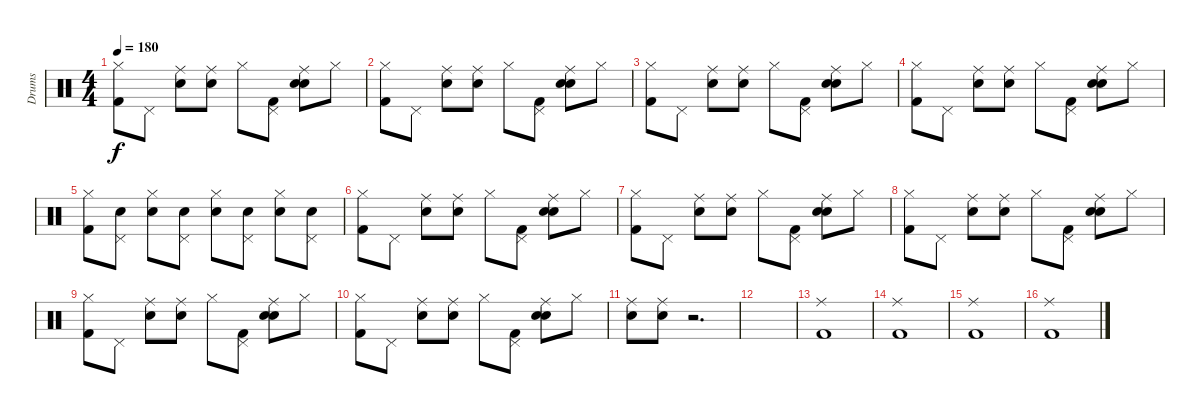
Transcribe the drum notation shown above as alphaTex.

\track ("Drums" "Drums") {instrument percussion}
\staff {score}
\articulation defaults
\ts (4 4)
\tempo 180
\clef neutral
\ks c
("Hi-Hat (closed)" "Kick (hit) 2").8{dy f} "Pedal Hi-Hat (hit)".8 ("Ride (middle)" "Snare (hit) 2").8 ("Ride (middle)" "Snare (hit) 2").8 "Hi-Hat (closed)".8 ("Pedal Hi-Hat (hit)" "Kick (hit) 2").8 ("Hand Clap (hit)" "Ride (middle)" "Snare (hit) 2").8 "Hi-Hat (closed)".8 |
("Hi-Hat (closed)" "Kick (hit) 2").8 "Pedal Hi-Hat (hit)".8 ("Ride (middle)" "Snare (hit) 2").8 ("Ride (middle)" "Snare (hit) 2").8 "Hi-Hat (closed)".8 ("Pedal Hi-Hat (hit)" "Kick (hit) 2").8 ("Hand Clap (hit)" "Ride (middle)" "Snare (hit) 2").8 "Hi-Hat (closed)".8 |
("Hi-Hat (closed)" "Kick (hit) 2").8 "Pedal Hi-Hat (hit)".8 ("Ride (middle)" "Snare (hit) 2").8 ("Ride (middle)" "Snare (hit) 2").8 "Hi-Hat (closed)".8 ("Pedal Hi-Hat (hit)" "Kick (hit) 2").8 ("Hand Clap (hit)" "Ride (middle)" "Snare (hit) 2").8 "Hi-Hat (closed)".8 |
("Hi-Hat (closed)" "Kick (hit) 2").8 "Pedal Hi-Hat (hit)".8 ("Ride (middle)" "Snare (hit) 2").8 ("Ride (middle)" "Snare (hit) 2").8 "Hi-Hat (closed)".8 ("Pedal Hi-Hat (hit)" "Kick (hit) 2").8 ("Hand Clap (hit)" "Ride (middle)" "Snare (hit) 2").8 "Hi-Hat (closed)".8 |
("Hi-Hat (closed)" "Kick (hit) 2").8 ("Pedal Hi-Hat (hit)" "Electric Snare (hit)").8 ("Hi-Hat (closed)" "Electric Snare (hit)").8 ("Pedal Hi-Hat (hit)" "Snare (hit) 2").8 ("Hi-Hat (closed)" "Electric Snare (hit)").8 ("Pedal Hi-Hat (hit)" "Electric Snare (hit)").8 ("Hi-Hat (closed)" "Snare (hit) 2").8 ("Pedal Hi-Hat (hit)" "Electric Snare (hit)").8 |
("Hi-Hat (closed)" "Kick (hit) 2").8 "Pedal Hi-Hat (hit)".8 ("Ride (middle)" "Snare (hit) 2").8 ("Ride (middle)" "Snare (hit) 2").8 "Hi-Hat (closed)".8 ("Pedal Hi-Hat (hit)" "Kick (hit) 2").8 ("Hand Clap (hit)" "Ride (middle)" "Snare (hit) 2").8 "Hi-Hat (closed)".8 |
("Hi-Hat (closed)" "Kick (hit) 2").8 "Pedal Hi-Hat (hit)".8 ("Ride (middle)" "Snare (hit) 2").8 ("Ride (middle)" "Snare (hit) 2").8 "Hi-Hat (closed)".8 ("Pedal Hi-Hat (hit)" "Kick (hit) 2").8 ("Hand Clap (hit)" "Ride (middle)" "Snare (hit) 2").8 "Hi-Hat (closed)".8 |
("Hi-Hat (closed)" "Kick (hit) 2").8 "Pedal Hi-Hat (hit)".8 ("Ride (middle)" "Snare (hit) 2").8 ("Ride (middle)" "Snare (hit) 2").8 "Hi-Hat (closed)".8 ("Pedal Hi-Hat (hit)" "Kick (hit) 2").8 ("Hand Clap (hit)" "Ride (middle)" "Snare (hit) 2").8 "Hi-Hat (closed)".8 |
("Hi-Hat (closed)" "Kick (hit) 2").8 "Pedal Hi-Hat (hit)".8 ("Ride (middle)" "Snare (hit) 2").8 ("Ride (middle)" "Snare (hit) 2").8 "Hi-Hat (closed)".8 ("Pedal Hi-Hat (hit)" "Kick (hit) 2").8 ("Hand Clap (hit)" "Ride (middle)" "Snare (hit) 2").8 "Hi-Hat (closed)".8 |
("Hi-Hat (closed)" "Kick (hit) 2").8 "Pedal Hi-Hat (hit)".8 ("Ride (middle)" "Snare (hit) 2").8 ("Ride (middle)" "Snare (hit) 2").8 "Hi-Hat (closed)".8 ("Pedal Hi-Hat (hit)" "Kick (hit) 2").8 ("Hand Clap (hit)" "Ride (middle)" "Snare (hit) 2").8 "Hi-Hat (closed)".8 |
("Ride (middle)" "Snare (hit) 2").8 ("Ride (middle)" "Snare (hit) 2").8 r.2{d} |
|
("Ride (middle)" "Kick (hit) 2").1 |
("Ride (middle)" "Kick (hit) 2").1 |
("Ride (middle)" "Kick (hit) 2").1 |
("Ride (middle)" "Kick (hit) 2").1
